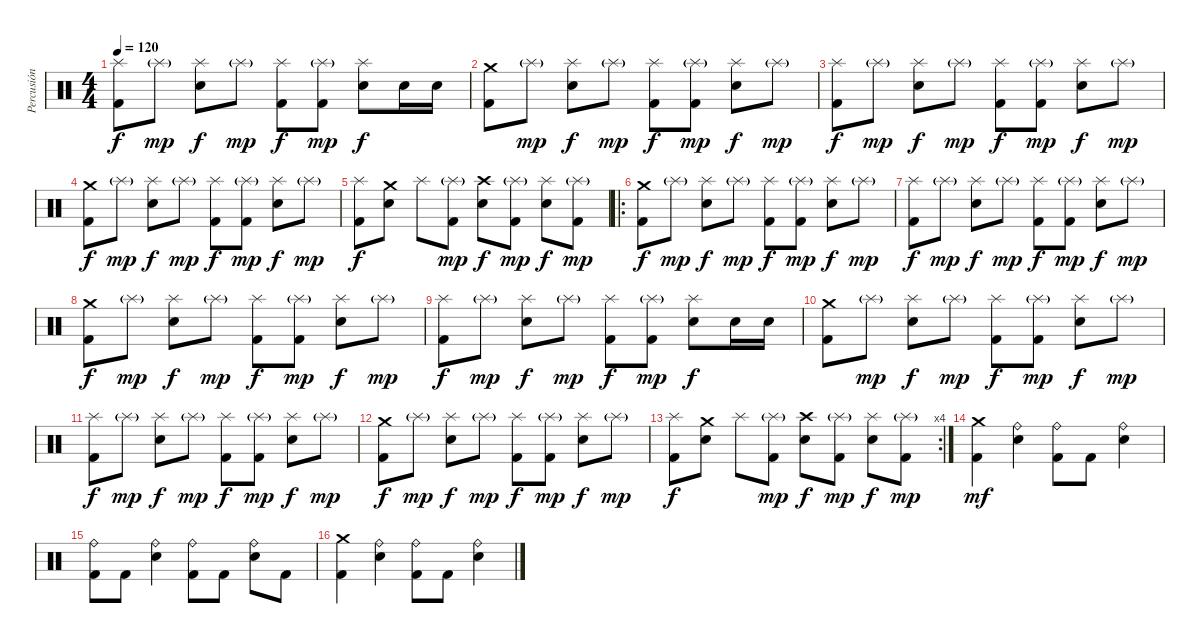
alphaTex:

\track ("Percusión" "Percusión") {instrument percussion}
\staff {score}
\articulation defaults
\ts (4 4)
\tempo 120
\clef neutral
\ks c
("Splash (hit)" "Kick (hit) 2").8{dy f} "Splash (hit)"{g}.8{dy mp} ("Splash (hit)" "Electric Snare (hit)").8{dy f} "Splash (hit)"{g}.8{dy mp} ("Splash (hit)" "Kick (hit) 2").8{dy f} ("Splash (hit)"{g} "Kick (hit) 2").8{dy mp} ("Splash (hit)" "Electric Snare (hit)").8{dy f} "Electric Snare (hit)".16 "Electric Snare (hit)".16 |
("Crash medium (hit)" "Kick (hit) 2").8 "Splash (hit)"{g}.8{dy mp} ("Splash (hit)" "Electric Snare (hit)").8{dy f} "Splash (hit)"{g}.8{dy mp} ("Splash (hit)" "Kick (hit) 2").8{dy f} ("Splash (hit)"{g} "Kick (hit) 2").8{dy mp} ("Splash (hit)" "Electric Snare (hit)").8{dy f} "Splash (hit)"{g}.8{dy mp} |
("Splash (hit)" "Kick (hit) 2").8{dy f} "Splash (hit)"{g}.8{dy mp} ("Splash (hit)" "Electric Snare (hit)").8{dy f} "Splash (hit)"{g}.8{dy mp} ("Splash (hit)" "Kick (hit) 2").8{dy f} ("Splash (hit)"{g} "Kick (hit) 2").8{dy mp} ("Splash (hit)" "Electric Snare (hit)").8{dy f} "Splash (hit)"{g}.8{dy mp} |
("Crash medium (hit)" "Kick (hit) 2").8{dy f} "Splash (hit)"{g}.8{dy mp} ("Splash (hit)" "Electric Snare (hit)").8{dy f} "Splash (hit)"{g}.8{dy mp} ("Splash (hit)" "Kick (hit) 2").8{dy f} ("Splash (hit)"{g} "Kick (hit) 2").8{dy mp} ("Splash (hit)" "Electric Snare (hit)").8{dy f} "Splash (hit)"{g}.8{dy mp} |
("Splash (hit)" "Kick (hit) 2").8{dy f} ("Crash medium (hit)" "Electric Snare (hit)").8 "Splash (hit)".8 ("Splash (hit)"{g} "Kick (hit) 2").8{dy mp} ("Crash high (hit)" "Electric Snare (hit)").8{dy f} ("Splash (hit)"{g} "Kick (hit) 2").8{dy mp} ("Splash (hit)" "Electric Snare (hit)").8{dy f} ("Splash (hit)"{g} "Kick (hit) 2").8{dy mp} |
\ro
("Crash medium (hit)" "Kick (hit) 2").8{dy f} "Splash (hit)"{g}.8{dy mp} ("Splash (hit)" "Electric Snare (hit)").8{dy f} "Splash (hit)"{g}.8{dy mp} ("Splash (hit)" "Kick (hit) 2").8{dy f} ("Splash (hit)"{g} "Kick (hit) 2").8{dy mp} ("Splash (hit)" "Electric Snare (hit)").8{dy f} "Splash (hit)"{g}.8{dy mp} |
("Splash (hit)" "Kick (hit) 2").8{dy f} "Splash (hit)"{g}.8{dy mp} ("Splash (hit)" "Electric Snare (hit)").8{dy f} "Splash (hit)"{g}.8{dy mp} ("Splash (hit)" "Kick (hit) 2").8{dy f} ("Splash (hit)"{g} "Kick (hit) 2").8{dy mp} ("Splash (hit)" "Electric Snare (hit)").8{dy f} "Splash (hit)"{g}.8{dy mp} |
("Crash medium (hit)" "Kick (hit) 2").8{dy f} "Splash (hit)"{g}.8{dy mp} ("Splash (hit)" "Electric Snare (hit)").8{dy f} "Splash (hit)"{g}.8{dy mp} ("Splash (hit)" "Kick (hit) 2").8{dy f} ("Splash (hit)"{g} "Kick (hit) 2").8{dy mp} ("Splash (hit)" "Electric Snare (hit)").8{dy f} "Splash (hit)"{g}.8{dy mp} |
("Splash (hit)" "Kick (hit) 2").8{dy f} "Splash (hit)"{g}.8{dy mp} ("Splash (hit)" "Electric Snare (hit)").8{dy f} "Splash (hit)"{g}.8{dy mp} ("Splash (hit)" "Kick (hit) 2").8{dy f} ("Splash (hit)"{g} "Kick (hit) 2").8{dy mp} ("Splash (hit)" "Electric Snare (hit)").8{dy f} "Electric Snare (hit)".16 "Electric Snare (hit)".16 |
("Crash medium (hit)" "Kick (hit) 2").8 "Splash (hit)"{g}.8{dy mp} ("Splash (hit)" "Electric Snare (hit)").8{dy f} "Splash (hit)"{g}.8{dy mp} ("Splash (hit)" "Kick (hit) 2").8{dy f} ("Splash (hit)"{g} "Kick (hit) 2").8{dy mp} ("Splash (hit)" "Electric Snare (hit)").8{dy f} "Splash (hit)"{g}.8{dy mp} |
("Splash (hit)" "Kick (hit) 2").8{dy f} "Splash (hit)"{g}.8{dy mp} ("Splash (hit)" "Electric Snare (hit)").8{dy f} "Splash (hit)"{g}.8{dy mp} ("Splash (hit)" "Kick (hit) 2").8{dy f} ("Splash (hit)"{g} "Kick (hit) 2").8{dy mp} ("Splash (hit)" "Electric Snare (hit)").8{dy f} "Splash (hit)"{g}.8{dy mp} |
("Crash medium (hit)" "Kick (hit) 2").8{dy f} "Splash (hit)"{g}.8{dy mp} ("Splash (hit)" "Electric Snare (hit)").8{dy f} "Splash (hit)"{g}.8{dy mp} ("Splash (hit)" "Kick (hit) 2").8{dy f} ("Splash (hit)"{g} "Kick (hit) 2").8{dy mp} ("Splash (hit)" "Electric Snare (hit)").8{dy f} "Splash (hit)"{g}.8{dy mp} |
\rc 4
("Splash (hit)" "Kick (hit) 2").8{dy f} ("Crash medium (hit)" "Electric Snare (hit)").8 "Splash (hit)".8 ("Splash (hit)"{g} "Kick (hit) 2").8{dy mp} ("Crash high (hit)" "Electric Snare (hit)").8{dy f} ("Splash (hit)"{g} "Kick (hit) 2").8{dy mp} ("Splash (hit)" "Electric Snare (hit)").8{dy f} ("Splash (hit)"{g} "Kick (hit) 2").8{dy mp} |
("Crash medium (hit)" "Kick (hit) 2").4{dy mf} ("Ride (bell)" "Electric Snare (hit)").4 ("Ride (bell)" "Kick (hit) 2").8 "Kick (hit) 2".8 ("Ride (bell)" "Electric Snare (hit)").4 |
("Ride (bell)" "Kick (hit) 2").8 "Kick (hit) 2".8 ("Ride (bell)" "Electric Snare (hit)").4 ("Ride (bell)" "Kick (hit) 2").8 "Kick (hit) 2".8 ("Ride (bell)" "Electric Snare (hit)").8 "Kick (hit) 2".8 |
("Crash medium (hit)" "Kick (hit) 2").4 ("Ride (bell)" "Electric Snare (hit)").4 ("Ride (bell)" "Kick (hit) 2").8 "Kick (hit) 2".8 ("Ride (bell)" "Electric Snare (hit)").4
